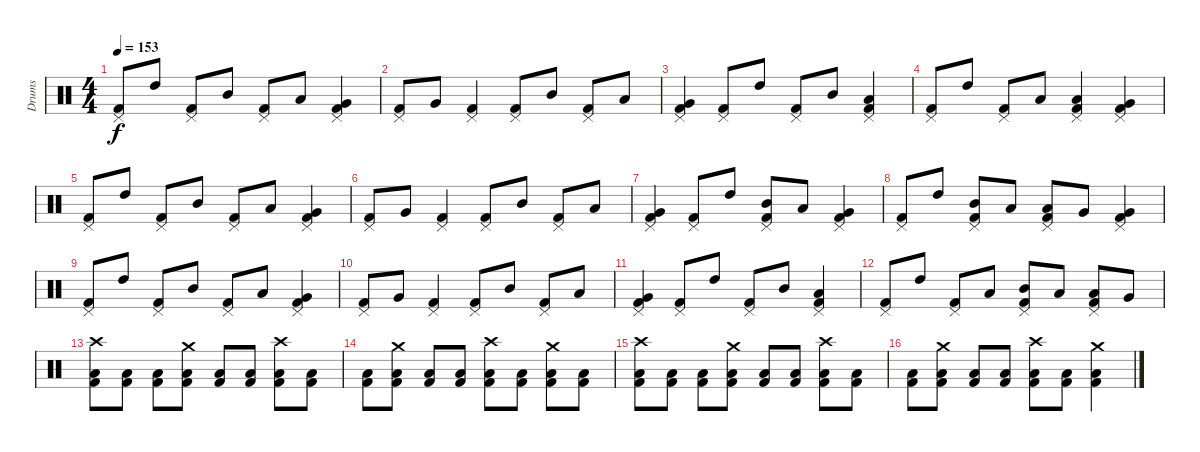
\track ("Drums" "Drums") {instrument percussion}
\staff {score}
\articulation defaults
\ts (4 4)
\tempo 153
\clef neutral
\ks c
("Pedal Hi-Hat (hit)" "Kick (hit) 2").8{dy f} "High Tom (hit)".8 ("Pedal Hi-Hat (hit)" "Kick (hit) 2").8 "Mid Tom (hit)".8 ("Pedal Hi-Hat (hit)" "Kick (hit) 2").8 "Low Tom (hit)".8 ("Pedal Hi-Hat (hit)" "Very Low Tom (hit)" "Kick (hit) 2").4 |
("Pedal Hi-Hat (hit)" "Kick (hit) 2").8 "Very Low Tom (hit)".8 ("Pedal Hi-Hat (hit)" "Kick (hit) 2").4 ("Pedal Hi-Hat (hit)" "Kick (hit) 2").8 "Mid Tom (hit)".8 ("Pedal Hi-Hat (hit)" "Kick (hit) 2").8 "Low Tom (hit)".8 |
("Pedal Hi-Hat (hit)" "Very Low Tom (hit)" "Kick (hit) 2").4 ("Pedal Hi-Hat (hit)" "Kick (hit) 2").8 "High Tom (hit)".8 ("Pedal Hi-Hat (hit)" "Kick (hit) 2").8 "Mid Tom (hit)".8 ("Pedal Hi-Hat (hit)" "Low Tom (hit)" "Kick (hit) 2").4 |
("Pedal Hi-Hat (hit)" "Kick (hit) 2").8 "High Tom (hit)".8 ("Pedal Hi-Hat (hit)" "Kick (hit) 2").8 "Low Tom (hit)".8 ("Pedal Hi-Hat (hit)" "Low Tom (hit)" "Kick (hit) 2").4 ("Pedal Hi-Hat (hit)" "Very Low Tom (hit)" "Kick (hit) 2").4 |
("Pedal Hi-Hat (hit)" "Kick (hit) 2").8 "High Tom (hit)".8 ("Pedal Hi-Hat (hit)" "Kick (hit) 2").8 "Mid Tom (hit)".8 ("Pedal Hi-Hat (hit)" "Kick (hit) 2").8 "Low Tom (hit)".8 ("Pedal Hi-Hat (hit)" "Very Low Tom (hit)" "Kick (hit) 2").4 |
("Pedal Hi-Hat (hit)" "Kick (hit) 2").8 "Very Low Tom (hit)".8 ("Pedal Hi-Hat (hit)" "Kick (hit) 2").4 ("Pedal Hi-Hat (hit)" "Kick (hit) 2").8 "Mid Tom (hit)".8 ("Pedal Hi-Hat (hit)" "Kick (hit) 2").8 "Low Tom (hit)".8 |
("Pedal Hi-Hat (hit)" "Very Low Tom (hit)" "Kick (hit) 2").4 ("Pedal Hi-Hat (hit)" "Kick (hit) 2").8 "High Tom (hit)".8 ("Pedal Hi-Hat (hit)" "Mid Tom (hit)" "Kick (hit) 2").8 "Low Tom (hit)".8 ("Pedal Hi-Hat (hit)" "Very Low Tom (hit)" "Kick (hit) 2").4 |
("Pedal Hi-Hat (hit)" "Kick (hit) 2").8 "High Tom (hit)".8 ("Pedal Hi-Hat (hit)" "Mid Tom (hit)" "Kick (hit) 2").8 "Low Tom (hit)".8 ("Pedal Hi-Hat (hit)" "Low Tom (hit)" "Kick (hit) 2").8 "Very Low Tom (hit)".8 ("Pedal Hi-Hat (hit)" "Very Low Tom (hit)" "Kick (hit) 2").4 |
("Pedal Hi-Hat (hit)" "Kick (hit) 2").8 "High Tom (hit)".8 ("Pedal Hi-Hat (hit)" "Kick (hit) 2").8 "Mid Tom (hit)".8 ("Pedal Hi-Hat (hit)" "Kick (hit) 2").8 "Low Tom (hit)".8 ("Pedal Hi-Hat (hit)" "Very Low Tom (hit)" "Kick (hit) 2").4 |
("Pedal Hi-Hat (hit)" "Kick (hit) 2").8 "Very Low Tom (hit)".8 ("Pedal Hi-Hat (hit)" "Kick (hit) 2").4 ("Pedal Hi-Hat (hit)" "Kick (hit) 2").8 "Mid Tom (hit)".8 ("Pedal Hi-Hat (hit)" "Kick (hit) 2").8 "Low Tom (hit)".8 |
("Pedal Hi-Hat (hit)" "Very Low Tom (hit)" "Kick (hit) 2").4 ("Pedal Hi-Hat (hit)" "Kick (hit) 2").8 "High Tom (hit)".8 ("Pedal Hi-Hat (hit)" "Kick (hit) 2").8 "Mid Tom (hit)".8 ("Pedal Hi-Hat (hit)" "Low Tom (hit)" "Kick (hit) 2").4 |
("Pedal Hi-Hat (hit)" "Kick (hit) 2").8 "High Tom (hit)".8 ("Pedal Hi-Hat (hit)" "Kick (hit) 2").8 "Low Tom (hit)".8 ("Pedal Hi-Hat (hit)" "Mid Tom (hit)" "Kick (hit) 2").8 "Low Tom (hit)".8 ("Pedal Hi-Hat (hit)" "Low Tom (hit)" "Kick (hit) 2").8 "Very Low Tom (hit)".8 |
("Crash high (hit)" "Low Tom (hit)" "Kick (hit) 2").8 ("Low Tom (hit)" "Kick (hit) 2").8 ("Low Tom (hit)" "Kick (hit) 2").8 ("Crash medium (hit)" "Low Tom (hit)" "Kick (hit) 2").8 ("Low Tom (hit)" "Kick (hit) 2").8 ("Low Tom (hit)" "Kick (hit) 2").8 ("Crash high (hit)" "Low Tom (hit)" "Kick (hit) 2").8 ("Low Tom (hit)" "Kick (hit) 2").8 |
("Low Tom (hit)" "Kick (hit) 2").8 ("Crash medium (hit)" "Low Tom (hit)" "Kick (hit) 2").8 ("Low Tom (hit)" "Kick (hit) 2").8 ("Low Tom (hit)" "Kick (hit) 2").8 ("Crash high (hit)" "Low Tom (hit)" "Kick (hit) 2").8 ("Low Tom (hit)" "Kick (hit) 2").8 ("Crash medium (hit)" "Low Tom (hit)" "Kick (hit) 2").8 ("Low Tom (hit)" "Kick (hit) 2").8 |
("Crash high (hit)" "Low Tom (hit)" "Kick (hit) 2").8 ("Low Tom (hit)" "Kick (hit) 2").8 ("Low Tom (hit)" "Kick (hit) 2").8 ("Crash medium (hit)" "Low Tom (hit)" "Kick (hit) 2").8 ("Low Tom (hit)" "Kick (hit) 2").8 ("Low Tom (hit)" "Kick (hit) 2").8 ("Crash high (hit)" "Low Tom (hit)" "Kick (hit) 2").8 ("Low Tom (hit)" "Kick (hit) 2").8 |
("Low Tom (hit)" "Kick (hit) 2").8 ("Crash medium (hit)" "Low Tom (hit)" "Kick (hit) 2").8 ("Low Tom (hit)" "Kick (hit) 2").8 ("Low Tom (hit)" "Kick (hit) 2").8 ("Crash high (hit)" "Low Tom (hit)" "Kick (hit) 2").8 ("Low Tom (hit)" "Kick (hit) 2").8 ("Crash medium (hit)" "Low Tom (hit)" "Kick (hit) 2").4
